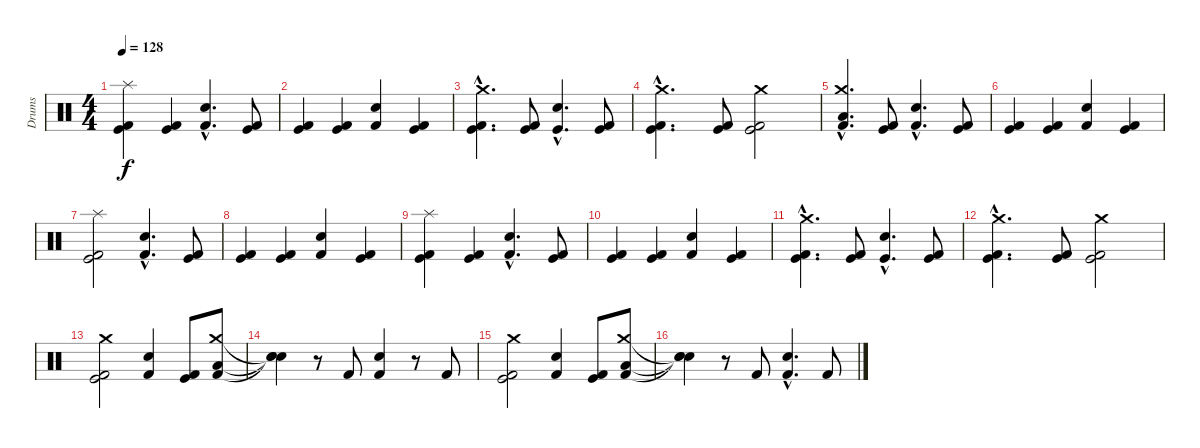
\track ("Drums" "Drums") {instrument percussion}
\staff {score}
\articulation defaults
\ts (4 4)
\tempo 128
\clef neutral
\ks c
("Splash (hit)" "Kick (hit)" "Kick (hit) 2").4{dy f} ("Kick (hit)" "Kick (hit) 2").4 ("Snare (hit) 2"{hac} "Kick (hit) 2"{hac}).4{d} ("Kick (hit)" "Kick (hit) 2").8 |
("Kick (hit)" "Kick (hit) 2").4 ("Kick (hit)" "Kick (hit) 2").4 ("Snare (hit) 2" "Kick (hit) 2").4 ("Kick (hit)" "Kick (hit) 2").4 |
("Crash medium (hit)"{hac} "Kick (hit)"{hac} "Kick (hit) 2"{hac}).4{d} ("Kick (hit)" "Kick (hit) 2").8 ("Snare (hit) 2"{hac} "Kick (hit)"{hac}).4{d} ("Kick (hit)" "Kick (hit) 2").8 |
("Crash medium (hit)"{hac} "Kick (hit)"{hac} "Kick (hit) 2"{hac}).4{d} ("Kick (hit)" "Kick (hit) 2").8 ("Crash medium (hit)" "Kick (hit)" "Kick (hit) 2").2 |
("Crash medium (hit)"{hac} "Low Floor Tom (hit)"{hac} "Kick (hit) 2"{hac}).4{d} ("Kick (hit)" "Kick (hit) 2").8 ("Snare (hit) 2"{hac} "Kick (hit) 2"{hac}).4{d} ("Kick (hit)" "Kick (hit) 2").8 |
("Kick (hit)" "Kick (hit) 2").4 ("Kick (hit)" "Kick (hit) 2").4 ("Snare (hit) 2" "Kick (hit) 2").4 ("Kick (hit)" "Kick (hit) 2").4 |
("Splash (hit)" "Kick (hit)" "Kick (hit) 2").2 ("Snare (hit) 2"{hac} "Kick (hit) 2"{hac}).4{d} ("Kick (hit)" "Kick (hit) 2").8 |
("Kick (hit)" "Kick (hit) 2").4 ("Kick (hit)" "Kick (hit) 2").4 ("Snare (hit) 2" "Kick (hit) 2").4 ("Kick (hit)" "Kick (hit) 2").4 |
("Splash (hit)" "Kick (hit)" "Kick (hit) 2").4 ("Kick (hit)" "Kick (hit) 2").4 ("Snare (hit) 2"{hac} "Kick (hit) 2"{hac}).4{d} ("Kick (hit)" "Kick (hit) 2").8 |
("Kick (hit)" "Kick (hit) 2").4 ("Kick (hit)" "Kick (hit) 2").4 ("Snare (hit) 2" "Kick (hit) 2").4 ("Kick (hit)" "Kick (hit) 2").4 |
("Crash medium (hit)"{hac} "Kick (hit)"{hac} "Kick (hit) 2"{hac}).4{d} ("Kick (hit)" "Kick (hit) 2").8 ("Snare (hit) 2"{hac} "Kick (hit)"{hac}).4{d} ("Kick (hit)" "Kick (hit) 2").8 |
("Crash medium (hit)"{hac} "Kick (hit)"{hac} "Kick (hit) 2"{hac}).4{d} ("Kick (hit)" "Kick (hit) 2").8 ("Crash medium (hit)" "Kick (hit)" "Kick (hit) 2").2 |
("Crash medium (hit)" "Kick (hit)" "Kick (hit) 2").2 ("Snare (hit) 2" "Kick (hit) 2").4 ("Kick (hit)" "Kick (hit) 2").8 ("Crash medium (hit)" "Low Floor Tom (hit)" "Kick (hit) 2").8 |
("Snare (hit)"{t} "Snare (hit)"{t} "Snare (hit)"{t}).4 r.8 "Kick (hit) 2".8 ("Snare (hit) 2" "Kick (hit) 2").4 r.8 "Kick (hit) 2".8 |
("Crash medium (hit)" "Kick (hit)" "Kick (hit) 2").2 ("Snare (hit) 2" "Kick (hit) 2").4 ("Kick (hit)" "Kick (hit) 2").8 ("Crash medium (hit)" "Low Floor Tom (hit)" "Kick (hit) 2").8 |
("Snare (hit)"{t} "Snare (hit)"{t} "Snare (hit)"{t}).4 r.8 "Kick (hit) 2".8 ("Snare (hit) 2"{hac} "Kick (hit) 2"{hac}).4{d} "Kick (hit) 2".8
